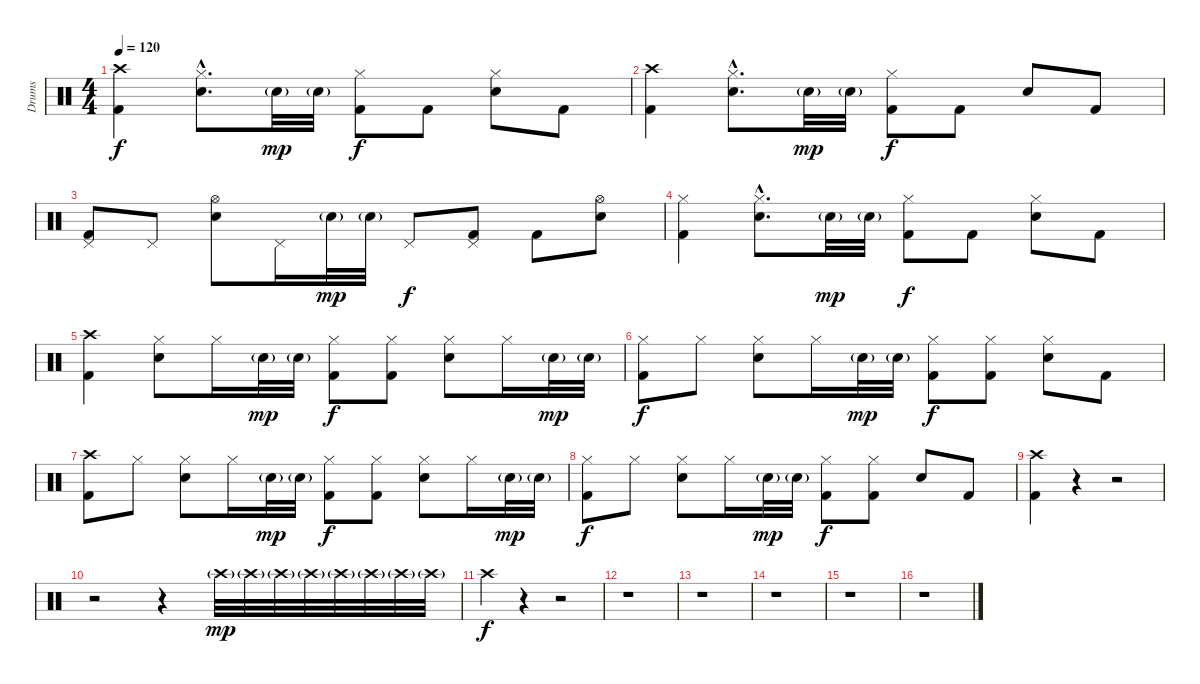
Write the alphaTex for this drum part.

\track ("Drums" "Drums") {instrument percussion}
\staff {score}
\articulation defaults
\ts (4 4)
\tempo 120
\clef neutral
\ks c
("Crash high (hit)" "Kick (hit) 2").4{dy f} ("Hi-Hat (closed)"{hac} "Snare (hit) 2"{hac}).8{d} "Snare (hit) 2"{g}.32{dy mp} "Snare (hit) 2"{g}.32 ("Hi-Hat (closed)" "Kick (hit) 2").8{dy f} "Kick (hit) 2".8 ("Hi-Hat (closed)" "Snare (hit) 2").8 "Kick (hit) 2".8 |
("Crash high (hit)" "Kick (hit) 2").4 ("Hi-Hat (closed)"{hac} "Snare (hit) 2"{hac}).8{d} "Snare (hit) 2"{g}.32{dy mp} "Snare (hit) 2"{g}.32 ("Hi-Hat (closed)" "Kick (hit) 2").8{dy f} "Kick (hit) 2".8 "Snare (hit) 2".8 "Kick (hit) 2".8 |
("Pedal Hi-Hat (hit)" "Kick (hit) 2").8 "Pedal Hi-Hat (hit)".8 ("Hi-Hat (open)" "Snare (hit) 2").8 "Pedal Hi-Hat (hit)".16 "Snare (hit) 2"{g}.32{dy mp} "Snare (hit) 2"{g}.32 "Pedal Hi-Hat (hit)".8{dy f} ("Pedal Hi-Hat (hit)" "Kick (hit) 2").8 "Kick (hit) 2".8 ("Hi-Hat (open)" "Snare (hit) 2").8 |
("Hi-Hat (closed)" "Kick (hit) 2").4 ("Hi-Hat (closed)"{hac} "Snare (hit) 2"{hac}).8{d} "Snare (hit) 2"{g}.32{dy mp} "Snare (hit) 2"{g}.32 ("Hi-Hat (closed)" "Kick (hit) 2").8{dy f} "Kick (hit) 2".8 ("Hi-Hat (closed)" "Snare (hit) 2").8 "Kick (hit) 2".8 |
("Crash high (hit)" "Kick (hit) 2").4 ("Hi-Hat (closed)" "Snare (hit) 2").8 "Hi-Hat (closed)".16 "Snare (hit) 2"{g}.32{dy mp} "Snare (hit) 2"{g}.32 ("Hi-Hat (closed)" "Kick (hit) 2").8{dy f} ("Hi-Hat (closed)" "Kick (hit) 2").8 ("Hi-Hat (closed)" "Snare (hit) 2").8 "Hi-Hat (closed)".16 "Snare (hit) 2"{g}.32{dy mp} "Snare (hit) 2"{g}.32 |
("Hi-Hat (closed)" "Kick (hit) 2").8{dy f} "Hi-Hat (closed)".8 ("Hi-Hat (closed)" "Snare (hit) 2").8 "Hi-Hat (closed)".16 "Snare (hit) 2"{g}.32{dy mp} "Snare (hit) 2"{g}.32 ("Hi-Hat (closed)" "Kick (hit) 2").8{dy f} ("Hi-Hat (closed)" "Kick (hit) 2").8 ("Hi-Hat (closed)" "Snare (hit) 2").8 "Kick (hit) 2".8 |
("Crash high (hit)" "Kick (hit) 2").8 "Hi-Hat (closed)".8 ("Hi-Hat (closed)" "Snare (hit) 2").8 "Hi-Hat (closed)".16 "Snare (hit) 2"{g}.32{dy mp} "Snare (hit) 2"{g}.32 ("Hi-Hat (closed)" "Kick (hit) 2").8{dy f} ("Hi-Hat (closed)" "Kick (hit) 2").8 ("Hi-Hat (closed)" "Snare (hit) 2").8 "Hi-Hat (closed)".16 "Snare (hit) 2"{g}.32{dy mp} "Snare (hit) 2"{g}.32 |
("Hi-Hat (closed)" "Kick (hit) 2").8{dy f} "Hi-Hat (closed)".8 ("Hi-Hat (closed)" "Snare (hit) 2").8 "Hi-Hat (closed)".16 "Snare (hit) 2"{g}.32{dy mp} "Snare (hit) 2"{g}.32 ("Hi-Hat (closed)" "Kick (hit) 2").8{dy f} ("Hi-Hat (closed)" "Kick (hit) 2").8 "Snare (hit) 2".8 "Kick (hit) 2".8 |
("Crash high (hit)" "Kick (hit) 2").4 r.4 r.2 |
r.2 r.4 "Crash high (hit)"{g}.32{dy mp} "Crash high (hit)"{g}.32 "Crash high (hit)"{g}.32 "Crash high (hit)"{g}.32 "Crash high (hit)"{g}.32 "Crash high (hit)"{g}.32 "Crash high (hit)"{g}.32 "Crash high (hit)"{g}.32 |
"Crash high (hit)".4{dy f} r.4 r.2 |
r.1 |
r.1 |
r.1 |
r.1 |
r.1
